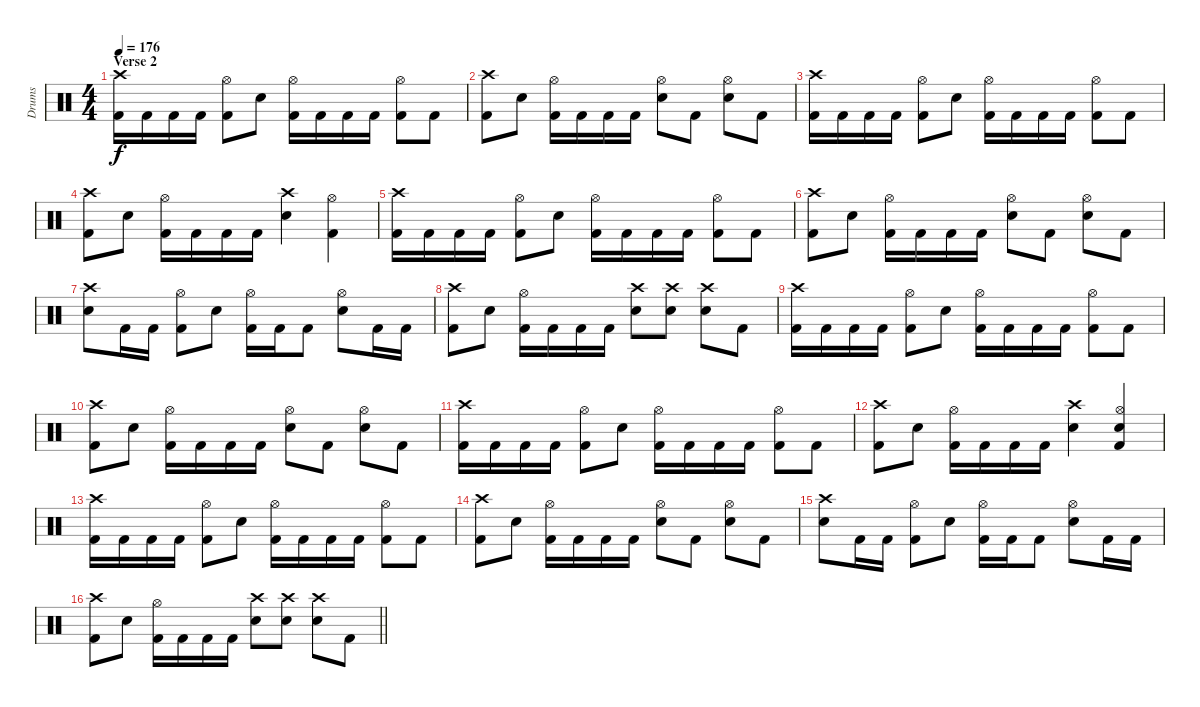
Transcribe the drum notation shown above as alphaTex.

\track ("Drums" "Drums") {instrument percussion}
\staff {score}
\articulation defaults
\ts (4 4)
\section ("" "Verse 2")
\tempo 176
\clef neutral
\ks c
("Crash high (hit)" "Kick (hit) 2").16{dy f} "Kick (hit) 2".16 "Kick (hit) 2".16 "Kick (hit) 2".16 ("Hi-Hat (open)" "Kick (hit) 2").8 "Snare (hit) 2".8 ("Hi-Hat (open)" "Kick (hit) 2").16 "Kick (hit) 2".16 "Kick (hit) 2".16 "Kick (hit) 2".16 ("Hi-Hat (open)" "Kick (hit) 2").8 "Kick (hit) 2".8 |
("Crash high (hit)" "Kick (hit) 2").8 "Snare (hit) 2".8 ("Hi-Hat (open)" "Kick (hit) 2").16 "Kick (hit) 2".16 "Kick (hit) 2".16 "Kick (hit) 2".16 ("Hi-Hat (open)" "Snare (hit) 2").8 "Kick (hit) 2".8 ("Hi-Hat (open)" "Snare (hit) 2").8 "Kick (hit) 2".8 |
("Crash high (hit)" "Kick (hit) 2").16 "Kick (hit) 2".16 "Kick (hit) 2".16 "Kick (hit) 2".16 ("Hi-Hat (open)" "Kick (hit) 2").8 "Snare (hit) 2".8 ("Hi-Hat (open)" "Kick (hit) 2").16 "Kick (hit) 2".16 "Kick (hit) 2".16 "Kick (hit) 2".16 ("Hi-Hat (open)" "Kick (hit) 2").8 "Kick (hit) 2".8 |
("Crash high (hit)" "Kick (hit) 2").8 "Snare (hit) 2".8 ("Hi-Hat (open)" "Kick (hit) 2").16 "Kick (hit) 2".16 "Kick (hit) 2".16 "Kick (hit) 2".16 ("Crash high (hit)" "Snare (hit) 2").4 ("Hi-Hat (open)" "Kick (hit) 2").4 |
("Crash high (hit)" "Kick (hit) 2").16 "Kick (hit) 2".16 "Kick (hit) 2".16 "Kick (hit) 2".16 ("Hi-Hat (open)" "Kick (hit) 2").8 "Snare (hit) 2".8 ("Hi-Hat (open)" "Kick (hit) 2").16 "Kick (hit) 2".16 "Kick (hit) 2".16 "Kick (hit) 2".16 ("Hi-Hat (open)" "Kick (hit) 2").8 "Kick (hit) 2".8 |
("Crash high (hit)" "Kick (hit) 2").8 "Snare (hit) 2".8 ("Hi-Hat (open)" "Kick (hit) 2").16 "Kick (hit) 2".16 "Kick (hit) 2".16 "Kick (hit) 2".16 ("Hi-Hat (open)" "Snare (hit) 2").8 "Kick (hit) 2".8 ("Hi-Hat (open)" "Snare (hit) 2").8 "Kick (hit) 2".8 |
("Crash high (hit)" "Snare (hit) 2").8 "Kick (hit) 2".16 "Kick (hit) 2".16 ("Hi-Hat (open)" "Kick (hit) 2").8 "Snare (hit) 2".8 ("Hi-Hat (open)" "Kick (hit) 2").16 "Kick (hit) 2".16 "Kick (hit) 2".8 ("Hi-Hat (open)" "Snare (hit) 2").8 "Kick (hit) 2".16 "Kick (hit) 2".16 |
("Crash high (hit)" "Kick (hit) 2").8 "Snare (hit) 2".8 ("Hi-Hat (open)" "Kick (hit) 2").16 "Kick (hit) 2".16 "Kick (hit) 2".16 "Kick (hit) 2".16 ("Crash high (hit)" "Snare (hit) 2").8 ("Crash high (hit)" "Snare (hit) 2").8 ("Crash high (hit)" "Snare (hit) 2").8 "Kick (hit) 2".8 |
("Crash high (hit)" "Kick (hit) 2").16 "Kick (hit) 2".16 "Kick (hit) 2".16 "Kick (hit) 2".16 ("Hi-Hat (open)" "Kick (hit) 2").8 "Snare (hit) 2".8 ("Hi-Hat (open)" "Kick (hit) 2").16 "Kick (hit) 2".16 "Kick (hit) 2".16 "Kick (hit) 2".16 ("Hi-Hat (open)" "Kick (hit) 2").8 "Kick (hit) 2".8 |
("Crash high (hit)" "Kick (hit) 2").8 "Snare (hit) 2".8 ("Hi-Hat (open)" "Kick (hit) 2").16 "Kick (hit) 2".16 "Kick (hit) 2".16 "Kick (hit) 2".16 ("Hi-Hat (open)" "Snare (hit) 2").8 "Kick (hit) 2".8 ("Hi-Hat (open)" "Snare (hit) 2").8 "Kick (hit) 2".8 |
("Crash high (hit)" "Kick (hit) 2").16 "Kick (hit) 2".16 "Kick (hit) 2".16 "Kick (hit) 2".16 ("Hi-Hat (open)" "Kick (hit) 2").8 "Snare (hit) 2".8 ("Hi-Hat (open)" "Kick (hit) 2").16 "Kick (hit) 2".16 "Kick (hit) 2".16 "Kick (hit) 2".16 ("Hi-Hat (open)" "Kick (hit) 2").8 "Kick (hit) 2".8 |
("Crash high (hit)" "Kick (hit) 2").8 "Snare (hit) 2".8 ("Hi-Hat (open)" "Kick (hit) 2").16 "Kick (hit) 2".16 "Kick (hit) 2".16 "Kick (hit) 2".16 ("Crash high (hit)" "Snare (hit) 2").4 ("Hi-Hat (open)" "Snare (hit) 2" "Kick (hit) 2").4 |
("Crash high (hit)" "Kick (hit) 2").16 "Kick (hit) 2".16 "Kick (hit) 2".16 "Kick (hit) 2".16 ("Hi-Hat (open)" "Kick (hit) 2").8 "Snare (hit) 2".8 ("Hi-Hat (open)" "Kick (hit) 2").16 "Kick (hit) 2".16 "Kick (hit) 2".16 "Kick (hit) 2".16 ("Hi-Hat (open)" "Kick (hit) 2").8 "Kick (hit) 2".8 |
("Crash high (hit)" "Kick (hit) 2").8 "Snare (hit) 2".8 ("Hi-Hat (open)" "Kick (hit) 2").16 "Kick (hit) 2".16 "Kick (hit) 2".16 "Kick (hit) 2".16 ("Hi-Hat (open)" "Snare (hit) 2").8 "Kick (hit) 2".8 ("Hi-Hat (open)" "Snare (hit) 2").8 "Kick (hit) 2".8 |
("Crash high (hit)" "Snare (hit) 2").8 "Kick (hit) 2".16 "Kick (hit) 2".16 ("Hi-Hat (open)" "Kick (hit) 2").8 "Snare (hit) 2".8 ("Hi-Hat (open)" "Kick (hit) 2").16 "Kick (hit) 2".16 "Kick (hit) 2".8 ("Hi-Hat (open)" "Snare (hit) 2").8 "Kick (hit) 2".16 "Kick (hit) 2".16 |
\barLineRight lightlight
("Crash high (hit)" "Kick (hit) 2").8 "Snare (hit) 2".8 ("Hi-Hat (open)" "Kick (hit) 2").16 "Kick (hit) 2".16 "Kick (hit) 2".16 "Kick (hit) 2".16 ("Crash high (hit)" "Snare (hit) 2").8 ("Crash high (hit)" "Snare (hit) 2").8 ("Crash high (hit)" "Snare (hit) 2").8 "Kick (hit) 2".8
